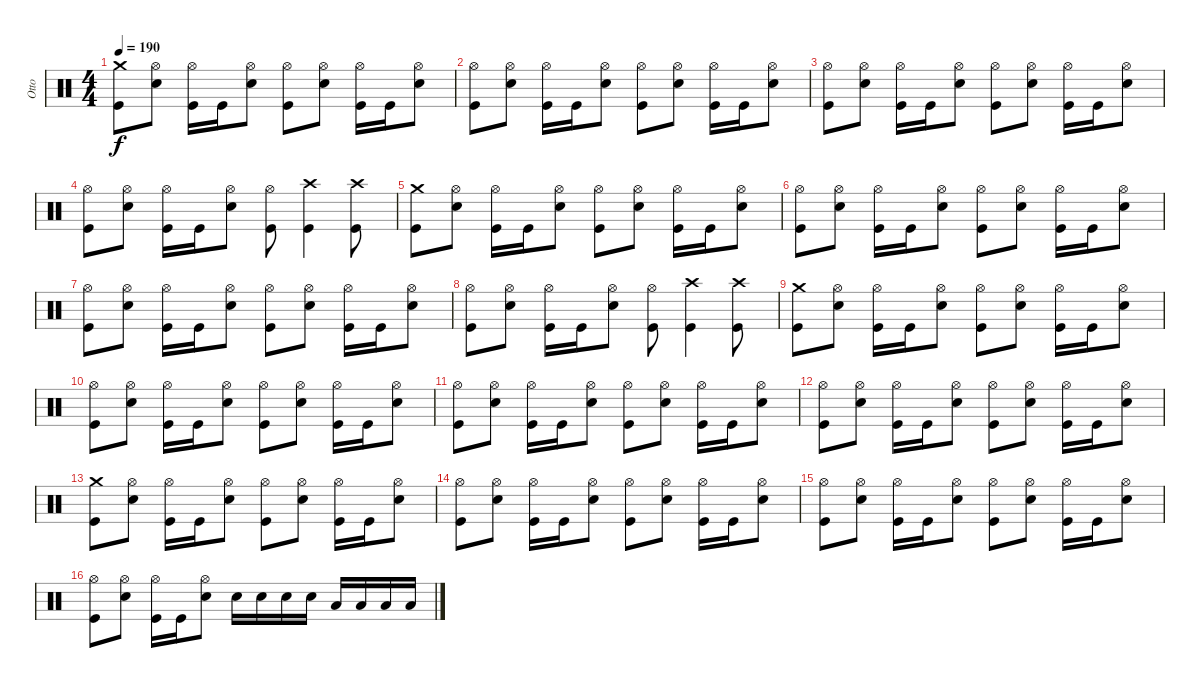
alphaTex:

\track ("Otto" "Otto") {instrument percussion}
\staff {score}
\articulation defaults
\ts (4 4)
\tempo 190
\clef neutral
\ks c
("Crash medium (hit)" "Kick (hit)").8{dy f} ("Hi-Hat (open)" "Snare (hit) 2").8 ("Hi-Hat (open)" "Kick (hit)").16 "Kick (hit)".16 ("Hi-Hat (open)" "Snare (hit) 2").8 ("Hi-Hat (open)" "Kick (hit)").8 ("Hi-Hat (open)" "Snare (hit) 2").8 ("Hi-Hat (open)" "Kick (hit)").16 "Kick (hit)".16 ("Hi-Hat (open)" "Snare (hit) 2").8 |
("Hi-Hat (open)" "Kick (hit)").8 ("Hi-Hat (open)" "Snare (hit) 2").8 ("Hi-Hat (open)" "Kick (hit)").16 "Kick (hit)".16 ("Hi-Hat (open)" "Snare (hit) 2").8 ("Hi-Hat (open)" "Kick (hit)").8 ("Hi-Hat (open)" "Snare (hit) 2").8 ("Hi-Hat (open)" "Kick (hit)").16 "Kick (hit)".16 ("Hi-Hat (open)" "Snare (hit) 2").8 |
("Hi-Hat (open)" "Kick (hit)").8 ("Hi-Hat (open)" "Snare (hit) 2").8 ("Hi-Hat (open)" "Kick (hit)").16 "Kick (hit)".16 ("Hi-Hat (open)" "Snare (hit) 2").8 ("Hi-Hat (open)" "Kick (hit)").8 ("Hi-Hat (open)" "Snare (hit) 2").8 ("Hi-Hat (open)" "Kick (hit)").16 "Kick (hit)".16 ("Hi-Hat (open)" "Snare (hit) 2").8 |
("Hi-Hat (open)" "Kick (hit)").8 ("Hi-Hat (open)" "Snare (hit) 2").8 ("Hi-Hat (open)" "Kick (hit)").16 "Kick (hit)".16 ("Hi-Hat (open)" "Snare (hit) 2").8 ("Hi-Hat (open)" "Kick (hit)").8 ("Crash high (hit)" "Kick (hit)").4 ("Crash high (hit)" "Kick (hit)").8 |
("Crash medium (hit)" "Kick (hit)").8 ("Hi-Hat (open)" "Snare (hit) 2").8 ("Hi-Hat (open)" "Kick (hit)").16 "Kick (hit)".16 ("Hi-Hat (open)" "Snare (hit) 2").8 ("Hi-Hat (open)" "Kick (hit)").8 ("Hi-Hat (open)" "Snare (hit) 2").8 ("Hi-Hat (open)" "Kick (hit)").16 "Kick (hit)".16 ("Hi-Hat (open)" "Snare (hit) 2").8 |
("Hi-Hat (open)" "Kick (hit)").8 ("Hi-Hat (open)" "Snare (hit) 2").8 ("Hi-Hat (open)" "Kick (hit)").16 "Kick (hit)".16 ("Hi-Hat (open)" "Snare (hit) 2").8 ("Hi-Hat (open)" "Kick (hit)").8 ("Hi-Hat (open)" "Snare (hit) 2").8 ("Hi-Hat (open)" "Kick (hit)").16 "Kick (hit)".16 ("Hi-Hat (open)" "Snare (hit) 2").8 |
("Hi-Hat (open)" "Kick (hit)").8 ("Hi-Hat (open)" "Snare (hit) 2").8 ("Hi-Hat (open)" "Kick (hit)").16 "Kick (hit)".16 ("Hi-Hat (open)" "Snare (hit) 2").8 ("Hi-Hat (open)" "Kick (hit)").8 ("Hi-Hat (open)" "Snare (hit) 2").8 ("Hi-Hat (open)" "Kick (hit)").16 "Kick (hit)".16 ("Hi-Hat (open)" "Snare (hit) 2").8 |
("Hi-Hat (open)" "Kick (hit)").8 ("Hi-Hat (open)" "Snare (hit) 2").8 ("Hi-Hat (open)" "Kick (hit)").16 "Kick (hit)".16 ("Hi-Hat (open)" "Snare (hit) 2").8 ("Hi-Hat (open)" "Kick (hit)").8 ("Crash high (hit)" "Kick (hit)").4 ("Crash high (hit)" "Kick (hit)").8 |
("Crash medium (hit)" "Kick (hit)").8 ("Hi-Hat (open)" "Snare (hit) 2").8 ("Hi-Hat (open)" "Kick (hit)").16 "Kick (hit)".16 ("Hi-Hat (open)" "Snare (hit) 2").8 ("Hi-Hat (open)" "Kick (hit)").8 ("Hi-Hat (open)" "Snare (hit) 2").8 ("Hi-Hat (open)" "Kick (hit)").16 "Kick (hit)".16 ("Hi-Hat (open)" "Snare (hit) 2").8 |
("Hi-Hat (open)" "Kick (hit)").8 ("Hi-Hat (open)" "Snare (hit) 2").8 ("Hi-Hat (open)" "Kick (hit)").16 "Kick (hit)".16 ("Hi-Hat (open)" "Snare (hit) 2").8 ("Hi-Hat (open)" "Kick (hit)").8 ("Hi-Hat (open)" "Snare (hit) 2").8 ("Hi-Hat (open)" "Kick (hit)").16 "Kick (hit)".16 ("Hi-Hat (open)" "Snare (hit) 2").8 |
("Hi-Hat (open)" "Kick (hit)").8 ("Hi-Hat (open)" "Snare (hit) 2").8 ("Hi-Hat (open)" "Kick (hit)").16 "Kick (hit)".16 ("Hi-Hat (open)" "Snare (hit) 2").8 ("Hi-Hat (open)" "Kick (hit)").8 ("Hi-Hat (open)" "Snare (hit) 2").8 ("Hi-Hat (open)" "Kick (hit)").16 "Kick (hit)".16 ("Hi-Hat (open)" "Snare (hit) 2").8 |
("Hi-Hat (open)" "Kick (hit)").8 ("Hi-Hat (open)" "Snare (hit) 2").8 ("Hi-Hat (open)" "Kick (hit)").16 "Kick (hit)".16 ("Hi-Hat (open)" "Snare (hit) 2").8 ("Hi-Hat (open)" "Kick (hit)").8 ("Hi-Hat (open)" "Snare (hit) 2").8 ("Hi-Hat (open)" "Kick (hit)").16 "Kick (hit)".16 ("Hi-Hat (open)" "Snare (hit) 2").8 |
("Crash medium (hit)" "Kick (hit)").8 ("Hi-Hat (open)" "Snare (hit) 2").8 ("Hi-Hat (open)" "Kick (hit)").16 "Kick (hit)".16 ("Hi-Hat (open)" "Snare (hit) 2").8 ("Hi-Hat (open)" "Kick (hit)").8 ("Hi-Hat (open)" "Snare (hit) 2").8 ("Hi-Hat (open)" "Kick (hit)").16 "Kick (hit)".16 ("Hi-Hat (open)" "Snare (hit) 2").8 |
("Hi-Hat (open)" "Kick (hit)").8 ("Hi-Hat (open)" "Snare (hit) 2").8 ("Hi-Hat (open)" "Kick (hit)").16 "Kick (hit)".16 ("Hi-Hat (open)" "Snare (hit) 2").8 ("Hi-Hat (open)" "Kick (hit)").8 ("Hi-Hat (open)" "Snare (hit) 2").8 ("Hi-Hat (open)" "Kick (hit)").16 "Kick (hit)".16 ("Hi-Hat (open)" "Snare (hit) 2").8 |
("Hi-Hat (open)" "Kick (hit)").8 ("Hi-Hat (open)" "Snare (hit) 2").8 ("Hi-Hat (open)" "Kick (hit)").16 "Kick (hit)".16 ("Hi-Hat (open)" "Snare (hit) 2").8 ("Hi-Hat (open)" "Kick (hit)").8 ("Hi-Hat (open)" "Snare (hit) 2").8 ("Hi-Hat (open)" "Kick (hit)").16 "Kick (hit)".16 ("Hi-Hat (open)" "Snare (hit) 2").8 |
("Hi-Hat (open)" "Kick (hit)").8 ("Hi-Hat (open)" "Snare (hit) 2").8 ("Hi-Hat (open)" "Kick (hit)").16 "Kick (hit)".16 ("Hi-Hat (open)" "Snare (hit) 2").8 "Snare (hit) 2".16 "Snare (hit) 2".16 "Snare (hit) 2".16 "Snare (hit) 2".16 "Low Tom (hit)".16 "Low Tom (hit)".16 "Low Tom (hit)".16 "Low Tom (hit)".16
